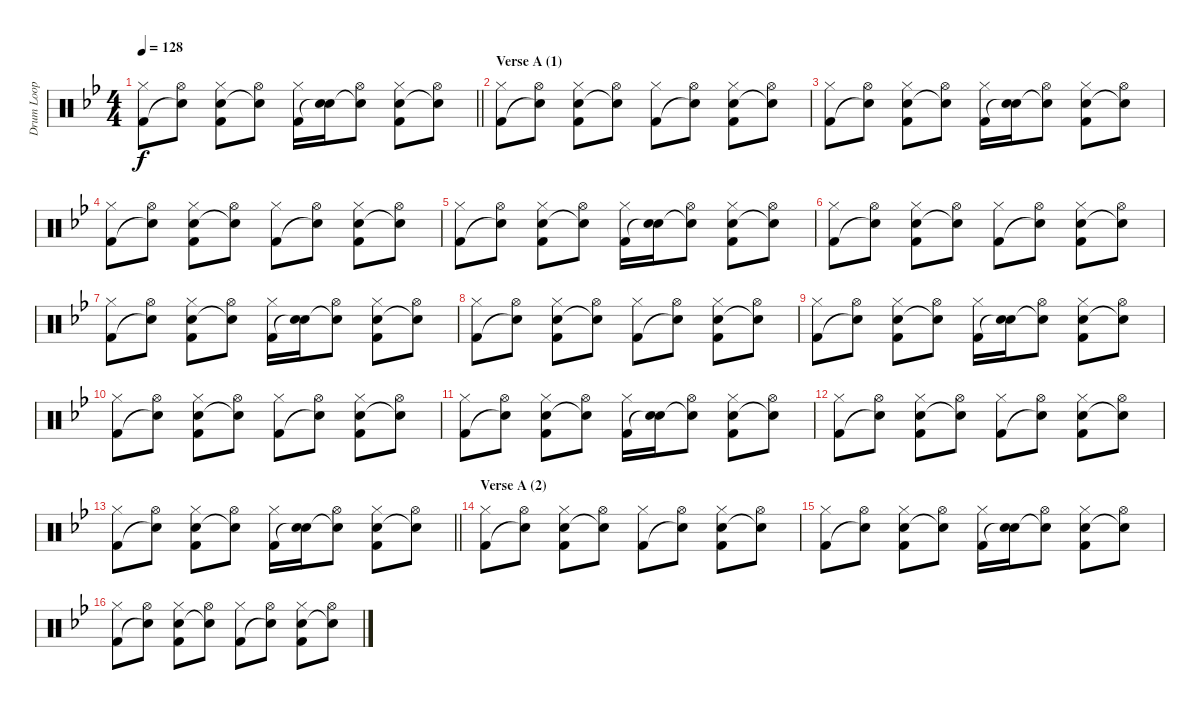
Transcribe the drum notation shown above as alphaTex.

\track ("Drum Loop" "Drum Loop") {instrument percussion}
\staff {score}
\articulation defaults
\ts (4 4)
\tempo 128
\clef neutral
\barLineRight lightlight
\ks gminor
("Hi-Hat (closed)" "Kick (hit) 2").8{dy f} ("Hi-Hat (open)" "Snare (hit)"{t}).8 ("Hi-Hat (closed)" "Electric Snare (hit)" "Kick (hit) 2").8 ("Hi-Hat (open)" "Snare (hit)"{t}).8 ("Hi-Hat (closed)" "Kick (hit) 2").16 ("Electric Snare (hit)" "Snare (hit)"{t}).16 ("Hi-Hat (open)" "Snare (hit)"{t}).8 ("Hi-Hat (closed)" "Electric Snare (hit)" "Kick (hit) 2").8 ("Hi-Hat (open)" "Snare (hit)"{t}).8 |
\section ("" "Verse A (1)")
("Hi-Hat (closed)" "Kick (hit) 2").8 ("Hi-Hat (open)" "Snare (hit)"{t}).8 ("Hi-Hat (closed)" "Electric Snare (hit)" "Kick (hit) 2").8 ("Hi-Hat (open)" "Snare (hit)"{t}).8 ("Hi-Hat (closed)" "Kick (hit) 2").8 ("Hi-Hat (open)" "Snare (hit)"{t}).8 ("Hi-Hat (closed)" "Electric Snare (hit)" "Kick (hit) 2").8 ("Hi-Hat (open)" "Snare (hit)"{t}).8 |
("Hi-Hat (closed)" "Kick (hit) 2").8 ("Hi-Hat (open)" "Snare (hit)"{t}).8 ("Hi-Hat (closed)" "Electric Snare (hit)" "Kick (hit) 2").8 ("Hi-Hat (open)" "Snare (hit)"{t}).8 ("Hi-Hat (closed)" "Kick (hit) 2").16 ("Electric Snare (hit)" "Snare (hit)"{t}).16 ("Hi-Hat (open)" "Snare (hit)"{t}).8 ("Hi-Hat (closed)" "Electric Snare (hit)" "Kick (hit) 2").8 ("Hi-Hat (open)" "Snare (hit)"{t}).8 |
("Hi-Hat (closed)" "Kick (hit) 2").8 ("Hi-Hat (open)" "Snare (hit)"{t}).8 ("Hi-Hat (closed)" "Electric Snare (hit)" "Kick (hit) 2").8 ("Hi-Hat (open)" "Snare (hit)"{t}).8 ("Hi-Hat (closed)" "Kick (hit) 2").8 ("Hi-Hat (open)" "Snare (hit)"{t}).8 ("Hi-Hat (closed)" "Electric Snare (hit)" "Kick (hit) 2").8 ("Hi-Hat (open)" "Snare (hit)"{t}).8 |
("Hi-Hat (closed)" "Kick (hit) 2").8 ("Hi-Hat (open)" "Snare (hit)"{t}).8 ("Hi-Hat (closed)" "Electric Snare (hit)" "Kick (hit) 2").8 ("Hi-Hat (open)" "Snare (hit)"{t}).8 ("Hi-Hat (closed)" "Kick (hit) 2").16 ("Electric Snare (hit)" "Snare (hit)"{t}).16 ("Hi-Hat (open)" "Snare (hit)"{t}).8 ("Hi-Hat (closed)" "Electric Snare (hit)" "Kick (hit) 2").8 ("Hi-Hat (open)" "Snare (hit)"{t}).8 |
("Hi-Hat (closed)" "Kick (hit) 2").8 ("Hi-Hat (open)" "Snare (hit)"{t}).8 ("Hi-Hat (closed)" "Electric Snare (hit)" "Kick (hit) 2").8 ("Hi-Hat (open)" "Snare (hit)"{t}).8 ("Hi-Hat (closed)" "Kick (hit) 2").8 ("Hi-Hat (open)" "Snare (hit)"{t}).8 ("Hi-Hat (closed)" "Electric Snare (hit)" "Kick (hit) 2").8 ("Hi-Hat (open)" "Snare (hit)"{t}).8 |
("Hi-Hat (closed)" "Kick (hit) 2").8 ("Hi-Hat (open)" "Snare (hit)"{t}).8 ("Hi-Hat (closed)" "Electric Snare (hit)" "Kick (hit) 2").8 ("Hi-Hat (open)" "Snare (hit)"{t}).8 ("Hi-Hat (closed)" "Kick (hit) 2").16 ("Electric Snare (hit)" "Snare (hit)"{t}).16 ("Hi-Hat (open)" "Snare (hit)"{t}).8 ("Hi-Hat (closed)" "Electric Snare (hit)" "Kick (hit) 2").8 ("Hi-Hat (open)" "Snare (hit)"{t}).8 |
("Hi-Hat (closed)" "Kick (hit) 2").8 ("Hi-Hat (open)" "Snare (hit)"{t}).8 ("Hi-Hat (closed)" "Electric Snare (hit)" "Kick (hit) 2").8 ("Hi-Hat (open)" "Snare (hit)"{t}).8 ("Hi-Hat (closed)" "Kick (hit) 2").8 ("Hi-Hat (open)" "Snare (hit)"{t}).8 ("Hi-Hat (closed)" "Electric Snare (hit)" "Kick (hit) 2").8 ("Hi-Hat (open)" "Snare (hit)"{t}).8 |
("Hi-Hat (closed)" "Kick (hit) 2").8 ("Hi-Hat (open)" "Snare (hit)"{t}).8 ("Hi-Hat (closed)" "Electric Snare (hit)" "Kick (hit) 2").8 ("Hi-Hat (open)" "Snare (hit)"{t}).8 ("Hi-Hat (closed)" "Kick (hit) 2").16 ("Electric Snare (hit)" "Snare (hit)"{t}).16 ("Hi-Hat (open)" "Snare (hit)"{t}).8 ("Hi-Hat (closed)" "Electric Snare (hit)" "Kick (hit) 2").8 ("Hi-Hat (open)" "Snare (hit)"{t}).8 |
("Hi-Hat (closed)" "Kick (hit) 2").8 ("Hi-Hat (open)" "Snare (hit)"{t}).8 ("Hi-Hat (closed)" "Electric Snare (hit)" "Kick (hit) 2").8 ("Hi-Hat (open)" "Snare (hit)"{t}).8 ("Hi-Hat (closed)" "Kick (hit) 2").8 ("Hi-Hat (open)" "Snare (hit)"{t}).8 ("Hi-Hat (closed)" "Electric Snare (hit)" "Kick (hit) 2").8 ("Hi-Hat (open)" "Snare (hit)"{t}).8 |
("Hi-Hat (closed)" "Kick (hit) 2").8 ("Hi-Hat (open)" "Snare (hit)"{t}).8 ("Hi-Hat (closed)" "Electric Snare (hit)" "Kick (hit) 2").8 ("Hi-Hat (open)" "Snare (hit)"{t}).8 ("Hi-Hat (closed)" "Kick (hit) 2").16 ("Electric Snare (hit)" "Snare (hit)"{t}).16 ("Hi-Hat (open)" "Snare (hit)"{t}).8 ("Hi-Hat (closed)" "Electric Snare (hit)" "Kick (hit) 2").8 ("Hi-Hat (open)" "Snare (hit)"{t}).8 |
("Hi-Hat (closed)" "Kick (hit) 2").8 ("Hi-Hat (open)" "Snare (hit)"{t}).8 ("Hi-Hat (closed)" "Electric Snare (hit)" "Kick (hit) 2").8 ("Hi-Hat (open)" "Snare (hit)"{t}).8 ("Hi-Hat (closed)" "Kick (hit) 2").8 ("Hi-Hat (open)" "Snare (hit)"{t}).8 ("Hi-Hat (closed)" "Electric Snare (hit)" "Kick (hit) 2").8 ("Hi-Hat (open)" "Snare (hit)"{t}).8 |
\barLineRight lightlight
("Hi-Hat (closed)" "Kick (hit) 2").8 ("Hi-Hat (open)" "Snare (hit)"{t}).8 ("Hi-Hat (closed)" "Electric Snare (hit)" "Kick (hit) 2").8 ("Hi-Hat (open)" "Snare (hit)"{t}).8 ("Hi-Hat (closed)" "Kick (hit) 2").16 ("Electric Snare (hit)" "Snare (hit)"{t}).16 ("Hi-Hat (open)" "Snare (hit)"{t}).8 ("Hi-Hat (closed)" "Electric Snare (hit)" "Kick (hit) 2").8 ("Hi-Hat (open)" "Snare (hit)"{t}).8 |
\section ("" "Verse A (2)")
("Hi-Hat (closed)" "Kick (hit) 2").8 ("Hi-Hat (open)" "Snare (hit)"{t}).8 ("Hi-Hat (closed)" "Electric Snare (hit)" "Kick (hit) 2").8 ("Hi-Hat (open)" "Snare (hit)"{t}).8 ("Hi-Hat (closed)" "Kick (hit) 2").8 ("Hi-Hat (open)" "Snare (hit)"{t}).8 ("Hi-Hat (closed)" "Electric Snare (hit)" "Kick (hit) 2").8 ("Hi-Hat (open)" "Snare (hit)"{t}).8 |
("Hi-Hat (closed)" "Kick (hit) 2").8 ("Hi-Hat (open)" "Snare (hit)"{t}).8 ("Hi-Hat (closed)" "Electric Snare (hit)" "Kick (hit) 2").8 ("Hi-Hat (open)" "Snare (hit)"{t}).8 ("Hi-Hat (closed)" "Kick (hit) 2").16 ("Electric Snare (hit)" "Snare (hit)"{t}).16 ("Hi-Hat (open)" "Snare (hit)"{t}).8 ("Hi-Hat (closed)" "Electric Snare (hit)" "Kick (hit) 2").8 ("Hi-Hat (open)" "Snare (hit)"{t}).8 |
("Hi-Hat (closed)" "Kick (hit) 2").8 ("Hi-Hat (open)" "Snare (hit)"{t}).8 ("Hi-Hat (closed)" "Electric Snare (hit)" "Kick (hit) 2").8 ("Hi-Hat (open)" "Snare (hit)"{t}).8 ("Hi-Hat (closed)" "Kick (hit) 2").8 ("Hi-Hat (open)" "Snare (hit)"{t}).8 ("Hi-Hat (closed)" "Electric Snare (hit)" "Kick (hit) 2").8 ("Hi-Hat (open)" "Snare (hit)"{t}).8
